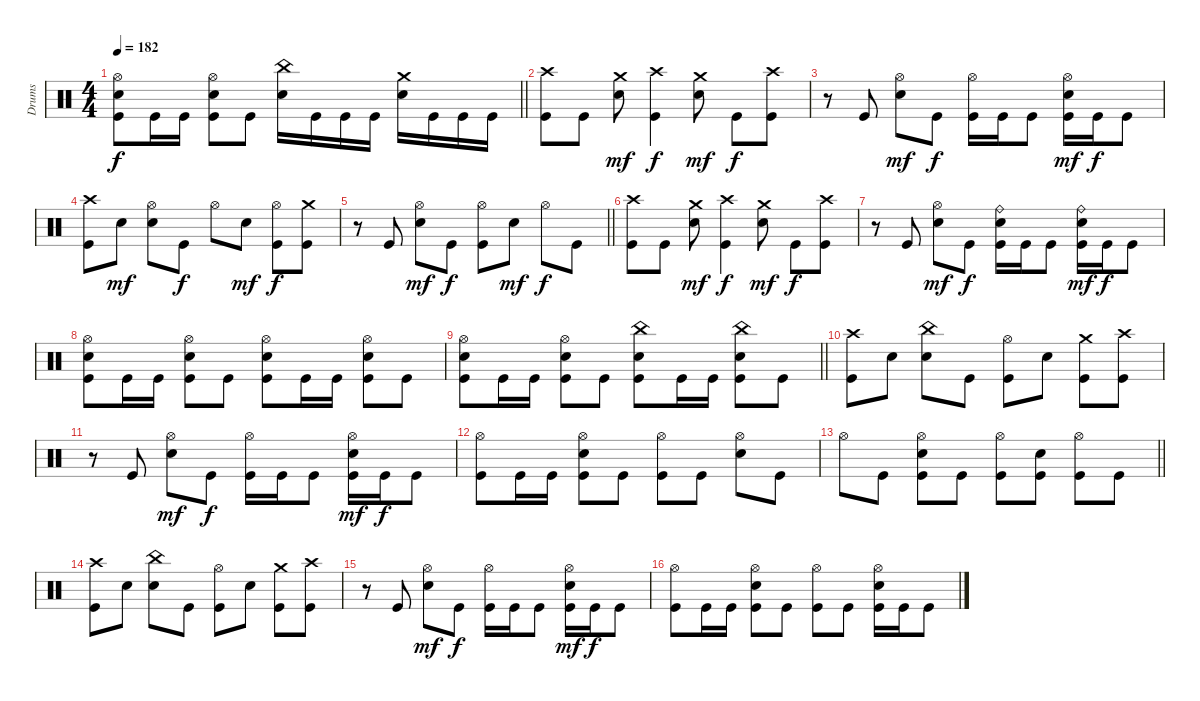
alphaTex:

\track ("Drums" "Drums") {instrument percussion}
\staff
\articulation defaults
\ts (4 4)
\tempo 182
\clef neutral
\barLineRight lightlight
\ks c
("Hi-Hat (open)" "Electric Snare (hit)" "Kick (hit)").8{dy f} "Kick (hit)".16 "Kick (hit)".16 ("Hi-Hat (open)" "Electric Snare (hit)" "Kick (hit)").8 "Kick (hit)".8 ("China (hit)" "Electric Snare (hit)").16 "Kick (hit)".16 "Kick (hit)".16 "Kick (hit)".16 ("Crash medium (hit)" "Electric Snare (hit)").16 "Kick (hit)".16 "Kick (hit)".16 "Kick (hit)".16 |
("Crash high (hit)" "Kick (hit)").8 "Kick (hit)".8 ("Crash medium (hit)" "Electric Snare (hit)").8{dy mf} ("Crash high (hit)" "Kick (hit)").4{dy f} ("Crash medium (hit)" "Electric Snare (hit)").8{dy mf} "Kick (hit)".8{dy f} ("Crash high (hit)" "Kick (hit)").8 |
r.8 "Kick (hit)".8 ("Hi-Hat (open)" "Electric Snare (hit)").8{dy mf} "Kick (hit)".8{dy f} ("Hi-Hat (open)" "Kick (hit)").16 "Kick (hit)".16 "Kick (hit)".8 ("Hi-Hat (open)" "Electric Snare (hit)" "Kick (hit)").16{dy mf} "Kick (hit)".16{dy f} "Kick (hit)".8 |
("Crash high (hit)" "Kick (hit)").8 "Electric Snare (hit)".8{dy mf} ("Hi-Hat (open)" "Electric Snare (hit)").8 "Kick (hit)".8{dy f} "Hi-Hat (open)".8 "Electric Snare (hit)".8{dy mf} ("Hi-Hat (open)" "Kick (hit)").8{dy f} ("Crash medium (hit)" "Kick (hit)").8 |
\barLineRight lightlight
r.8 "Kick (hit)".8 ("Hi-Hat (open)" "Electric Snare (hit)").8{dy mf} "Kick (hit)".8{dy f} ("Hi-Hat (open)" "Kick (hit)").8 "Electric Snare (hit)".8{dy mf} "Hi-Hat (open)".8{dy f} "Kick (hit)".8 |
("Crash high (hit)" "Kick (hit)").8 "Kick (hit)".8 ("Crash medium (hit)" "Electric Snare (hit)").8{dy mf} ("Crash high (hit)" "Kick (hit)").4{dy f} ("Crash medium (hit)" "Electric Snare (hit)").8{dy mf} "Kick (hit)".8{dy f} ("Crash high (hit)" "Kick (hit)").8 |
r.8 "Kick (hit)".8 ("Hi-Hat (open)" "Electric Snare (hit)").8{dy mf} "Kick (hit)".8{dy f} ("Ride (bell)" "Electric Snare (hit)" "Kick (hit)").16 "Kick (hit)".16 "Kick (hit)".8 ("Ride (bell)" "Electric Snare (hit)" "Kick (hit)").16{dy mf} "Kick (hit)".16{dy f} "Kick (hit)".8 |
("Hi-Hat (open)" "Electric Snare (hit)" "Kick (hit)").8 "Kick (hit)".16 "Kick (hit)".16 ("Hi-Hat (open)" "Electric Snare (hit)" "Kick (hit)").8 "Kick (hit)".8 ("Hi-Hat (open)" "Electric Snare (hit)" "Kick (hit)").8 "Kick (hit)".16 "Kick (hit)".16 ("Hi-Hat (open)" "Electric Snare (hit)" "Kick (hit)").8 "Kick (hit)".8 |
\barLineRight lightlight
("Hi-Hat (open)" "Electric Snare (hit)" "Kick (hit)").8 "Kick (hit)".16 "Kick (hit)".16 ("Hi-Hat (open)" "Electric Snare (hit)" "Kick (hit)").8 "Kick (hit)".8 ("China (hit)" "Electric Snare (hit)" "Kick (hit)").8 "Kick (hit)".16 "Kick (hit)".16 ("China (hit)" "Electric Snare (hit)" "Kick (hit)").8 "Kick (hit)".8 |
\section ("" "")
("Crash high (hit)" "Kick (hit)").8 "Electric Snare (hit)".8 ("China (hit)" "Electric Snare (hit)").8 "Kick (hit)".8 ("Hi-Hat (open)" "Kick (hit)").8 "Electric Snare (hit)".8 ("Crash medium (hit)" "Kick (hit)").8 ("Crash high (hit)" "Kick (hit)").8 |
r.8 "Kick (hit)".8 ("Hi-Hat (open)" "Electric Snare (hit)").8{dy mf} "Kick (hit)".8{dy f} ("Hi-Hat (open)" "Kick (hit)").16 "Kick (hit)".16 "Kick (hit)".8 ("Hi-Hat (open)" "Electric Snare (hit)" "Kick (hit)").16{dy mf} "Kick (hit)".16{dy f} "Kick (hit)".8 |
("Hi-Hat (open)" "Kick (hit)").8 "Kick (hit)".16 "Kick (hit)".16 ("Hi-Hat (open)" "Electric Snare (hit)" "Kick (hit)").8 "Kick (hit)".8 ("Hi-Hat (open)" "Kick (hit)").8 "Kick (hit)".8 ("Hi-Hat (open)" "Electric Snare (hit)").8 "Kick (hit)".8 |
\barLineRight lightlight "Hi-Hat (open)".8 "Kick (hit)".8
("Hi-Hat (open)" "Electric Snare (hit)" "Kick (hit)").8 "Kick (hit)".8 ("Hi-Hat (open)" "Kick (hit)").8 ("Electric Snare (hit)" "Kick (hit)").8 ("Hi-Hat (open)" "Kick (hit)").8 "Kick (hit)".8 |
("Crash high (hit)" "Kick (hit)").8 "Electric Snare (hit)".8 ("China (hit)" "Electric Snare (hit)").8 "Kick (hit)".8 ("Hi-Hat (open)" "Kick (hit)").8 "Electric Snare (hit)".8 ("Crash medium (hit)" "Kick (hit)").8 ("Crash high (hit)" "Kick (hit)").8 |
r.8 "Kick (hit)".8 ("Hi-Hat (open)" "Electric Snare (hit)").8{dy mf} "Kick (hit)".8{dy f} ("Hi-Hat (open)" "Kick (hit)").16 "Kick (hit)".16 "Kick (hit)".8 ("Hi-Hat (open)" "Electric Snare (hit)" "Kick (hit)").16{dy mf} "Kick (hit)".16{dy f} "Kick (hit)".8 |
("Hi-Hat (open)" "Kick (hit)").8 "Kick (hit)".16 "Kick (hit)".16 ("Hi-Hat (open)" "Electric Snare (hit)" "Kick (hit)").8 "Kick (hit)".8 ("Hi-Hat (open)" "Kick (hit)").8 "Kick (hit)".8 ("Hi-Hat (open)" "Electric Snare (hit)" "Kick (hit)").16 "Kick (hit)".16 "Kick (hit)".8
